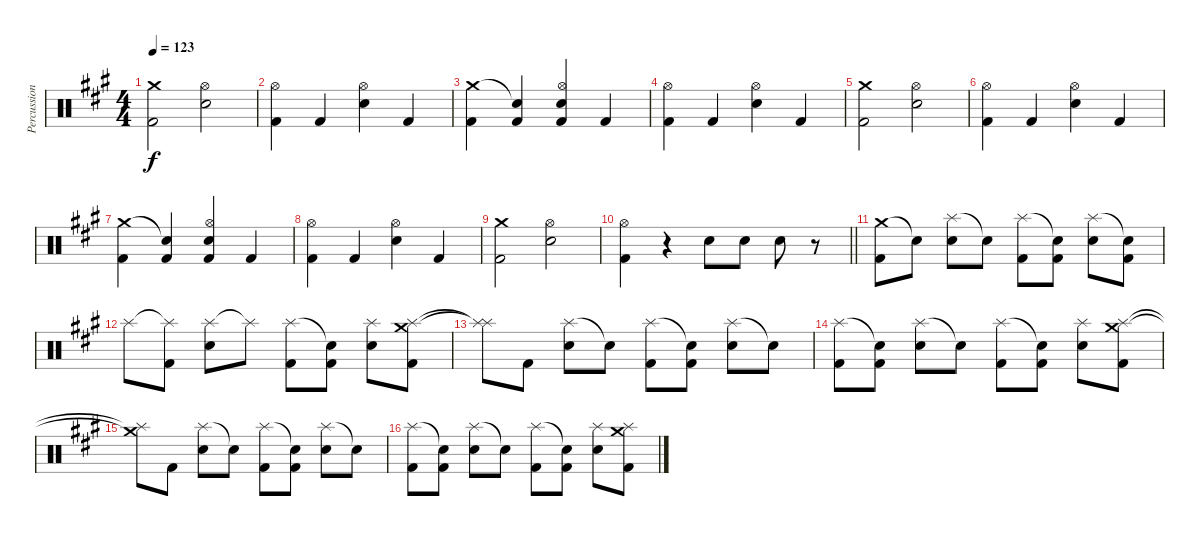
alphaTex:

\track ("Percussion" "Percussion") {instrument percussion}
\staff {score}
\articulation defaults
\ts (4 4)
\tempo 123
\clef neutral
\ks a
("Crash medium (hit)" "Kick (hit) 2").2{dy f} ("Hi-Hat (open)" "Electric Snare (hit)").2 |
("Hi-Hat (open)" "Kick (hit) 2").4 "Kick (hit) 2".4 ("Hi-Hat (open)" "Electric Snare (hit)").4 "Kick (hit) 2".4 |
("Crash medium (hit)" "Kick (hit) 2").4 ("Snare (hit)"{t} "Kick (hit) 2").4 ("Hi-Hat (open)" "Electric Snare (hit)" "Kick (hit) 2").4 "Kick (hit) 2".4 |
("Hi-Hat (open)" "Kick (hit) 2").4 "Kick (hit) 2".4 ("Hi-Hat (open)" "Electric Snare (hit)").4 "Kick (hit) 2".4 |
("Crash medium (hit)" "Kick (hit) 2").2 ("Hi-Hat (open)" "Electric Snare (hit)").2 |
("Hi-Hat (open)" "Kick (hit) 2").4 "Kick (hit) 2".4 ("Hi-Hat (open)" "Electric Snare (hit)").4 "Kick (hit) 2".4 |
("Crash medium (hit)" "Kick (hit) 2").4 ("Snare (hit)"{t} "Kick (hit) 2").4 ("Hi-Hat (open)" "Electric Snare (hit)" "Kick (hit) 2").4 "Kick (hit) 2".4 |
("Hi-Hat (open)" "Kick (hit) 2").4 "Kick (hit) 2".4 ("Hi-Hat (open)" "Electric Snare (hit)").4 "Kick (hit) 2".4 |
("Crash medium (hit)" "Kick (hit) 2").2 ("Hi-Hat (open)" "Electric Snare (hit)").2 |
\barLineRight lightlight
("Hi-Hat (open)" "Kick (hit) 2").4 r.4 "Electric Snare (hit)".8 "Electric Snare (hit)".8 "Electric Snare (hit)".8 r.8 |
("Crash medium (hit)" "Kick (hit) 2").8 "Snare (hit)"{t}.8 ("Splash (hit)" "Electric Snare (hit)").8 "Snare (hit)"{t}.8 ("Splash (hit)" "Kick (hit) 2").8 ("Snare (hit)"{t} "Kick (hit) 2").8 ("Splash (hit)" "Electric Snare (hit)").8 ("Snare (hit)"{t} "Kick (hit) 2").8 |
"Splash (hit)".8 ("Splash (hit)"{t} "Kick (hit) 2").8 ("Splash (hit)" "Electric Snare (hit)").8 "Splash (hit)"{t}.8 ("Splash (hit)" "Kick (hit) 2").8 ("Snare (hit)"{t} "Kick (hit) 2").8 ("Splash (hit)" "Electric Snare (hit)").8 ("Crash medium (hit)" "Splash (hit)" "Kick (hit) 2").8 |
("Splash (hit)"{t} "Splash (hit)"{t}).8 "Kick (hit) 2".8 ("Splash (hit)" "Electric Snare (hit)").8 "Snare (hit)"{t}.8 ("Splash (hit)" "Kick (hit) 2").8 ("Snare (hit)"{t} "Kick (hit) 2").8 ("Splash (hit)" "Electric Snare (hit)").8 "Snare (hit)"{t}.8 |
("Splash (hit)" "Kick (hit) 2").8 ("Snare (hit)"{t} "Kick (hit) 2").8 ("Splash (hit)" "Electric Snare (hit)").8 "Snare (hit)"{t}.8 ("Splash (hit)" "Kick (hit) 2").8 ("Snare (hit)"{t} "Kick (hit) 2").8 ("Splash (hit)" "Electric Snare (hit)").8 ("Crash medium (hit)" "Splash (hit)" "Kick (hit) 2").8 |
("Crash medium (hit)"{t} "Splash (hit)"{t}).8 "Kick (hit) 2".8 ("Splash (hit)" "Electric Snare (hit)").8 "Snare (hit)"{t}.8 ("Splash (hit)" "Kick (hit) 2").8 ("Snare (hit)"{t} "Kick (hit) 2").8 ("Splash (hit)" "Electric Snare (hit)").8 "Snare (hit)"{t}.8 |
("Splash (hit)" "Kick (hit) 2").8 ("Snare (hit)"{t} "Kick (hit) 2").8 ("Splash (hit)" "Electric Snare (hit)").8 "Snare (hit)"{t}.8 ("Splash (hit)" "Kick (hit) 2").8 ("Snare (hit)"{t} "Kick (hit) 2").8 ("Splash (hit)" "Electric Snare (hit)").8 ("Crash medium (hit)" "Splash (hit)" "Kick (hit) 2").8
